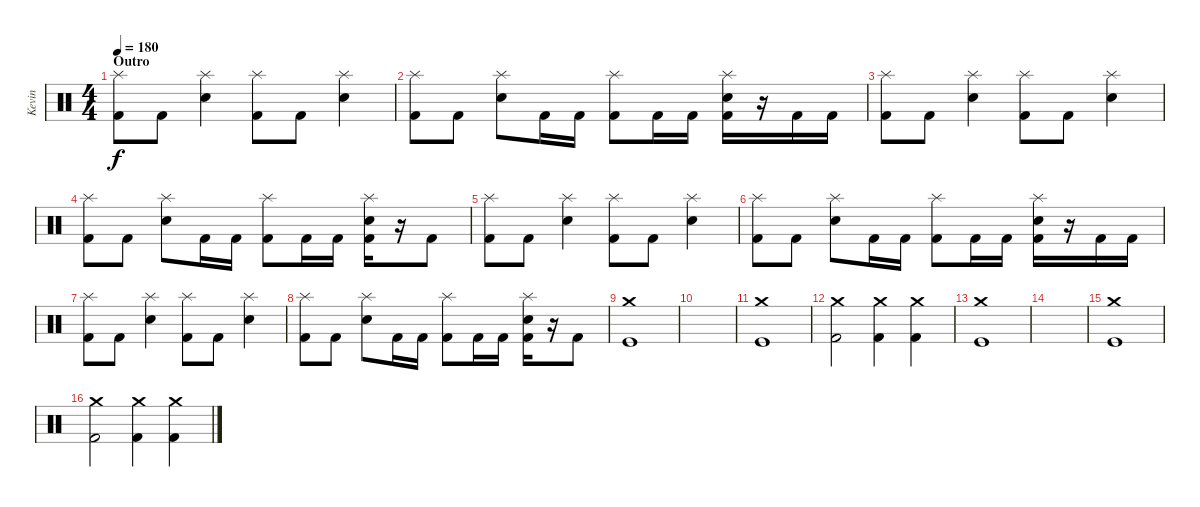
\track ("Kevin" "Kevin") {instrument percussion}
\staff {score}
\articulation defaults
\ts (4 4)
\section ("" "Outro")
\tempo 180
\clef neutral
\ks c
("Splash (hit)" "Kick (hit) 2").8{dy f} "Kick (hit) 2".8 ("Splash (hit)" "Electric Snare (hit)").4 ("Splash (hit)" "Kick (hit) 2").8 "Kick (hit) 2".8 ("Splash (hit)" "Electric Snare (hit)").4 |
("Splash (hit)" "Kick (hit) 2").8 "Kick (hit) 2".8 ("Splash (hit)" "Electric Snare (hit)").8 "Kick (hit) 2".16 "Kick (hit) 2".16 ("Splash (hit)" "Kick (hit) 2").8 "Kick (hit) 2".16 "Kick (hit) 2".16 ("Splash (hit)" "Electric Snare (hit)" "Kick (hit) 2").16 r.16 "Kick (hit) 2".16 "Kick (hit) 2".16 |
("Splash (hit)" "Kick (hit) 2").8 "Kick (hit) 2".8 ("Splash (hit)" "Electric Snare (hit)").4 ("Splash (hit)" "Kick (hit) 2").8 "Kick (hit) 2".8 ("Splash (hit)" "Electric Snare (hit)").4 |
("Splash (hit)" "Kick (hit) 2").8 "Kick (hit) 2".8 ("Splash (hit)" "Electric Snare (hit)").8 "Kick (hit) 2".16 "Kick (hit) 2".16 ("Splash (hit)" "Kick (hit) 2").8 "Kick (hit) 2".16 "Kick (hit) 2".16 ("Splash (hit)" "Electric Snare (hit)" "Kick (hit) 2").16 r.16 "Kick (hit) 2".8 |
("Splash (hit)" "Kick (hit) 2").8 "Kick (hit) 2".8 ("Splash (hit)" "Electric Snare (hit)").4 ("Splash (hit)" "Kick (hit) 2").8 "Kick (hit) 2".8 ("Splash (hit)" "Electric Snare (hit)").4 |
("Splash (hit)" "Kick (hit) 2").8 "Kick (hit) 2".8 ("Splash (hit)" "Electric Snare (hit)").8 "Kick (hit) 2".16 "Kick (hit) 2".16 ("Splash (hit)" "Kick (hit) 2").8 "Kick (hit) 2".16 "Kick (hit) 2".16 ("Splash (hit)" "Electric Snare (hit)" "Kick (hit) 2").16 r.16 "Kick (hit) 2".16 "Kick (hit) 2".16 |
("Splash (hit)" "Kick (hit) 2").8 "Kick (hit) 2".8 ("Splash (hit)" "Electric Snare (hit)").4 ("Splash (hit)" "Kick (hit) 2").8 "Kick (hit) 2".8 ("Splash (hit)" "Electric Snare (hit)").4 |
("Splash (hit)" "Kick (hit) 2").8 "Kick (hit) 2".8 ("Splash (hit)" "Electric Snare (hit)").8 "Kick (hit) 2".16 "Kick (hit) 2".16 ("Splash (hit)" "Kick (hit) 2").8 "Kick (hit) 2".16 "Kick (hit) 2".16 ("Splash (hit)" "Electric Snare (hit)" "Kick (hit) 2").16 r.16 "Kick (hit) 2".8 |
("Crash medium (hit)" "Kick (hit)").1 |
|
("Crash medium (hit)" "Kick (hit)").1 |
("Crash medium (hit)" "Kick (hit) 2").2 ("Crash medium (hit)" "Kick (hit) 2").4 ("Crash medium (hit)" "Kick (hit) 2").4 |
("Crash medium (hit)" "Kick (hit)").1 |
|
("Crash medium (hit)" "Kick (hit)").1 |
("Crash medium (hit)" "Kick (hit) 2").2 ("Crash medium (hit)" "Kick (hit) 2").4 ("Crash medium (hit)" "Kick (hit) 2").4
